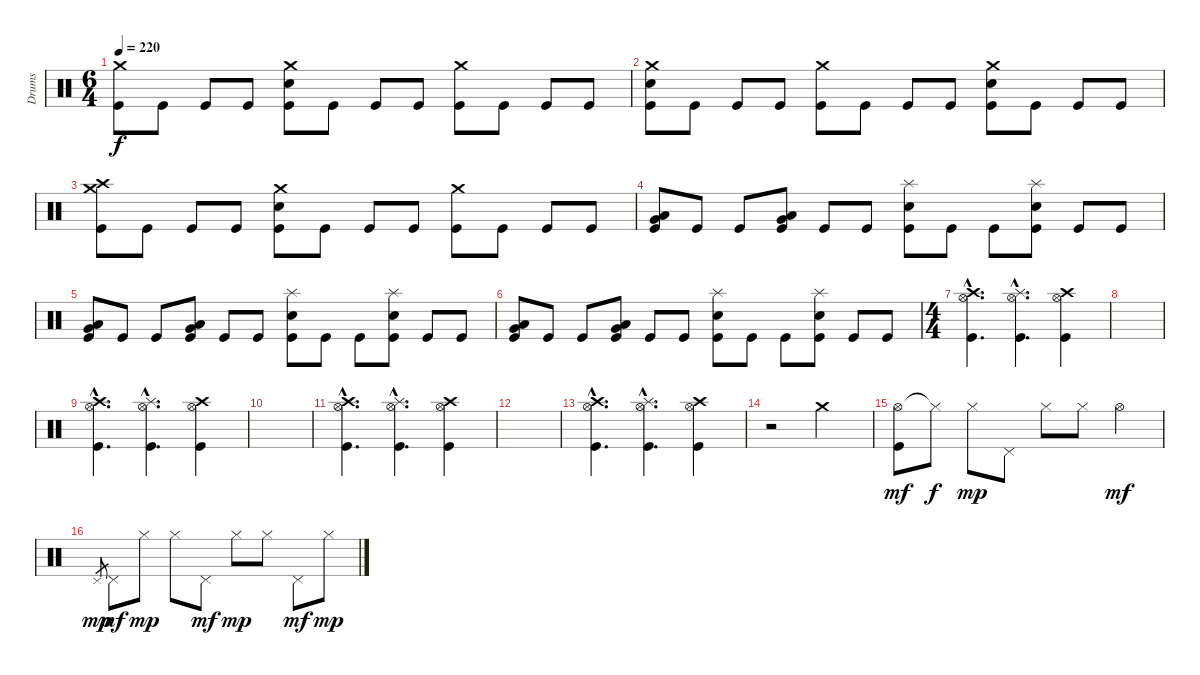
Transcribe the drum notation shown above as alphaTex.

\track ("Drums" "Drums") {instrument percussion}
\staff {score}
\articulation defaults
\ts (6 4)
\tempo 220
\clef neutral
\ks c
("Crash medium (hit)" "Kick (hit)").8{dy f} "Kick (hit)".8 "Kick (hit)".8 "Kick (hit)".8 ("Crash medium (hit)" "Electric Snare (hit)" "Kick (hit)").8 "Kick (hit)".8 "Kick (hit)".8 "Kick (hit)".8 ("Crash medium (hit)" "Kick (hit)").8 "Kick (hit)".8 "Kick (hit)".8 "Kick (hit)".8 |
("Crash medium (hit)" "Electric Snare (hit)" "Kick (hit)").8 "Kick (hit)".8 "Kick (hit)".8 "Kick (hit)".8 ("Crash medium (hit)" "Kick (hit)").8 "Kick (hit)".8 "Kick (hit)".8 "Kick (hit)".8 ("Crash medium (hit)" "Electric Snare (hit)" "Kick (hit)").8 "Kick (hit)".8 "Kick (hit)".8 "Kick (hit)".8 |
("Crash high (hit)" "Crash medium (hit)" "Kick (hit)").8 "Kick (hit)".8 "Kick (hit)".8 "Kick (hit)".8 ("Crash medium (hit)" "Electric Snare (hit)" "Kick (hit)").8 "Kick (hit)".8 "Kick (hit)".8 "Kick (hit)".8 ("Crash medium (hit)" "Kick (hit)").8 "Kick (hit)".8 "Kick (hit)".8 "Kick (hit)".8 |
("Low Floor Tom (hit)" "Very Low Tom (hit)" "Kick (hit)").8 "Kick (hit)".8 "Kick (hit)".8 ("Low Floor Tom (hit)" "Very Low Tom (hit)" "Kick (hit)").8 "Kick (hit)".8 "Kick (hit)".8 ("Splash (hit)" "Electric Snare (hit)" "Kick (hit)").8 "Kick (hit)".8 "Kick (hit)".8 ("Splash (hit)" "Electric Snare (hit)" "Kick (hit)").8 "Kick (hit)".8 "Kick (hit)".8 |
("Low Floor Tom (hit)" "Very Low Tom (hit)" "Kick (hit)").8 "Kick (hit)".8 "Kick (hit)".8 ("Low Floor Tom (hit)" "Very Low Tom (hit)" "Kick (hit)").8 "Kick (hit)".8 "Kick (hit)".8 ("Splash (hit)" "Electric Snare (hit)" "Kick (hit)").8 "Kick (hit)".8 "Kick (hit)".8 ("Splash (hit)" "Electric Snare (hit)" "Kick (hit)").8 "Kick (hit)".8 "Kick (hit)".8 |
("Low Floor Tom (hit)" "Very Low Tom (hit)" "Kick (hit)").8 "Kick (hit)".8 "Kick (hit)".8 ("Low Floor Tom (hit)" "Very Low Tom (hit)" "Kick (hit)").8 "Kick (hit)".8 "Kick (hit)".8 ("Splash (hit)" "Electric Snare (hit)" "Kick (hit)").8 "Kick (hit)".8 "Kick (hit)".8 ("Splash (hit)" "Electric Snare (hit)" "Kick (hit)").8 "Kick (hit)".8 "Kick (hit)".8 |
\ts (4 4)
("Crash high (hit)"{hac} "Hi-Hat (open)"{hac} "Kick (hit)"{hac}).4{d} ("Splash (hit)"{hac} "Hi-Hat (open)"{hac} "Kick (hit)"{hac}).4{d} ("Crash high (hit)" "Hi-Hat (open)" "Kick (hit)").4 |
|
("Crash high (hit)"{hac} "Hi-Hat (open)"{hac} "Kick (hit)"{hac}).4{d} ("Splash (hit)"{hac} "Hi-Hat (open)"{hac} "Kick (hit)"{hac}).4{d} ("Crash high (hit)" "Hi-Hat (open)" "Kick (hit)").4 |
|
("Crash high (hit)"{hac} "Hi-Hat (open)"{hac} "Kick (hit)"{hac}).4{d} ("Splash (hit)"{hac} "Hi-Hat (open)"{hac} "Kick (hit)"{hac}).4{d} ("Crash high (hit)" "Hi-Hat (open)" "Kick (hit)").4 |
|
("Crash high (hit)"{hac} "Hi-Hat (open)"{hac} "Kick (hit)"{hac}).4{d} ("Splash (hit)"{hac} "Hi-Hat (open)"{hac} "Kick (hit)"{hac}).4{d} ("Crash high (hit)" "Hi-Hat (open)" "Kick (hit)").4 |
r.2 "Crash medium (hit)".2 |
("Hi-Hat (open)" "Kick (hit)").8{dy mf} "Hi-Hat (closed)"{t}.8{dy f} "Hi-Hat (closed)".8{dy mp} "Pedal Hi-Hat (hit)".8 "Hi-Hat (closed)".8 "Hi-Hat (closed)".8 "Hi-Hat (open)".4{dy mf} |
"Pedal Hi-Hat (hit)".8{gr dy mp} "Pedal Hi-Hat (hit)".8{dy mf} "Hi-Hat (closed)".8{dy mp} "Hi-Hat (closed)".8 "Pedal Hi-Hat (hit)".8{dy mf} "Hi-Hat (closed)".8{dy mp} "Hi-Hat (closed)".8 "Pedal Hi-Hat (hit)".8{dy mf} "Hi-Hat (closed)".8{dy mp}
